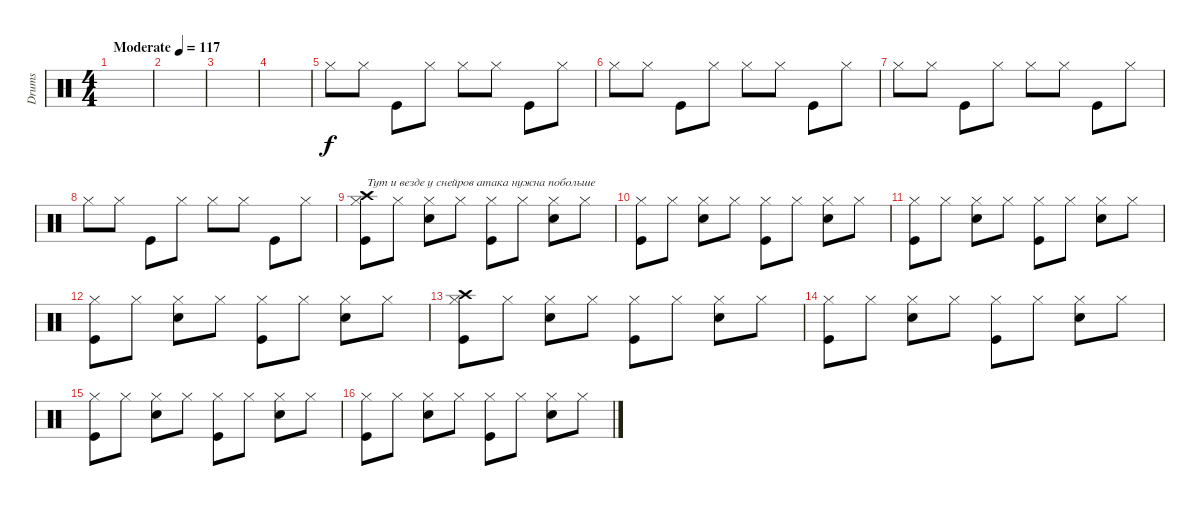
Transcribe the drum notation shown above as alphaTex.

\track ("Drums" "Drums") {instrument percussion}
\staff {score}
\articulation defaults
\ts (4 4)
\tempo (117 "Moderate")
\clef neutral
\ks c
|
|
|
|
"Hi-Hat (closed)".8 "Hi-Hat (closed)".8 "Kick (hit)".8 "Hi-Hat (closed)".8 "Hi-Hat (closed)".8 "Hi-Hat (closed)".8 "Kick (hit)".8 "Hi-Hat (closed)".8 |
"Hi-Hat (closed)".8 "Hi-Hat (closed)".8 "Kick (hit)".8 "Hi-Hat (closed)".8 "Hi-Hat (closed)".8 "Hi-Hat (closed)".8 "Kick (hit)".8 "Hi-Hat (closed)".8 |
"Hi-Hat (closed)".8 "Hi-Hat (closed)".8 "Kick (hit)".8 "Hi-Hat (closed)".8 "Hi-Hat (closed)".8 "Hi-Hat (closed)".8 "Kick (hit)".8 "Hi-Hat (closed)".8 |
"Hi-Hat (closed)".8 "Hi-Hat (closed)".8 "Kick (hit)".8 "Hi-Hat (closed)".8 "Hi-Hat (closed)".8 "Hi-Hat (closed)".8 "Kick (hit)".8 "Hi-Hat (closed)".8 |
("Kick (hit)" "Hi-Hat (closed)" "Crash high (hit)").8{txt "Тут и везде у снейров атака нужна побольше"} "Hi-Hat (closed)".8 ("Hi-Hat (closed)" "Snare (hit) 2").8 "Hi-Hat (closed)".8 ("Kick (hit)" "Hi-Hat (closed)").8 "Hi-Hat (closed)".8 ("Hi-Hat (closed)" "Snare (hit) 2").8 "Hi-Hat (closed)".8 |
("Kick (hit)" "Hi-Hat (closed)").8 "Hi-Hat (closed)".8 ("Hi-Hat (closed)" "Snare (hit) 2").8 "Hi-Hat (closed)".8 ("Kick (hit)" "Hi-Hat (closed)").8 "Hi-Hat (closed)".8 ("Hi-Hat (closed)" "Snare (hit) 2").8 "Hi-Hat (closed)".8 |
("Kick (hit)" "Hi-Hat (closed)").8 "Hi-Hat (closed)".8 ("Hi-Hat (closed)" "Snare (hit) 2").8 "Hi-Hat (closed)".8 ("Kick (hit)" "Hi-Hat (closed)").8 "Hi-Hat (closed)".8 ("Hi-Hat (closed)" "Snare (hit) 2").8 "Hi-Hat (closed)".8 |
("Kick (hit)" "Hi-Hat (closed)").8 "Hi-Hat (closed)".8 ("Hi-Hat (closed)" "Snare (hit) 2").8 "Hi-Hat (closed)".8 ("Kick (hit)" "Hi-Hat (closed)").8 "Hi-Hat (closed)".8 ("Hi-Hat (closed)" "Snare (hit) 2").8 "Hi-Hat (closed)".8 |
("Kick (hit)" "Hi-Hat (closed)" "Crash high (hit)").8 "Hi-Hat (closed)".8 ("Hi-Hat (closed)" "Snare (hit) 2").8 "Hi-Hat (closed)".8 ("Kick (hit)" "Hi-Hat (closed)").8 "Hi-Hat (closed)".8 ("Hi-Hat (closed)" "Snare (hit) 2").8 "Hi-Hat (closed)".8 |
("Kick (hit)" "Hi-Hat (closed)").8 "Hi-Hat (closed)".8 ("Hi-Hat (closed)" "Snare (hit) 2").8 "Hi-Hat (closed)".8 ("Kick (hit)" "Hi-Hat (closed)").8 "Hi-Hat (closed)".8 ("Hi-Hat (closed)" "Snare (hit) 2").8 "Hi-Hat (closed)".8 |
("Kick (hit)" "Hi-Hat (closed)").8 "Hi-Hat (closed)".8 ("Hi-Hat (closed)" "Snare (hit) 2").8 "Hi-Hat (closed)".8 ("Kick (hit)" "Hi-Hat (closed)").8 "Hi-Hat (closed)".8 ("Hi-Hat (closed)" "Snare (hit) 2").8 "Hi-Hat (closed)".8 |
("Kick (hit)" "Hi-Hat (closed)").8 "Hi-Hat (closed)".8 ("Hi-Hat (closed)" "Snare (hit) 2").8 "Hi-Hat (closed)".8 ("Kick (hit)" "Hi-Hat (closed)").8 "Hi-Hat (closed)".8 ("Hi-Hat (closed)" "Snare (hit) 2").8 "Hi-Hat (closed)".8
